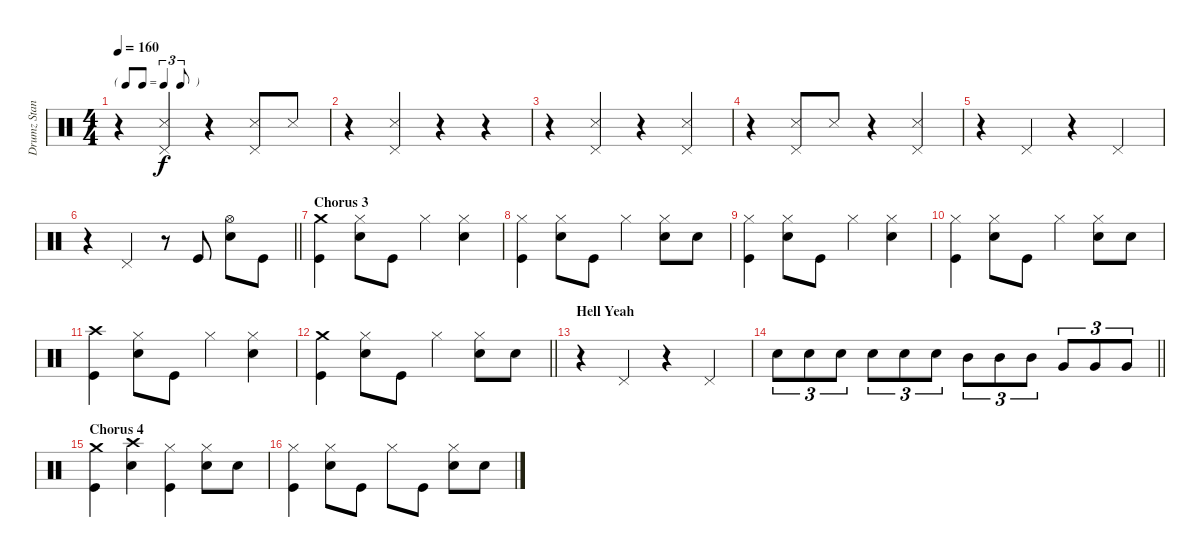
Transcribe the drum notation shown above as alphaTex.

\track ("Drumz Standard" "Drumz Stan") {instrument percussion}
\staff {score}
\articulation defaults
\ts (4 4)
\tf triplet8th
\tempo 160
\clef neutral
\ks c
r.4{dy f} ("Pedal Hi-Hat (hit)" "Snare (side stick) 3").4 r.4 ("Pedal Hi-Hat (hit)" "Snare (side stick) 3").8 "Snare (side stick) 3".8 |
r.4 ("Pedal Hi-Hat (hit)" "Snare (side stick) 3").4 r.4 r.4 |
r.4 ("Pedal Hi-Hat (hit)" "Snare (side stick) 3").4 r.4 ("Pedal Hi-Hat (hit)" "Snare (side stick) 3").4 |
r.4 ("Pedal Hi-Hat (hit)" "Snare (side stick) 3").8 "Snare (side stick) 3".8 r.4 ("Pedal Hi-Hat (hit)" "Snare (side stick) 3").4 |
r.4 "Pedal Hi-Hat (hit)".4 r.4 "Pedal Hi-Hat (hit)".4 |
\barLineRight lightlight
r.4 "Pedal Hi-Hat (hit)".4 r.8 "Kick (hit)".8 ("Hi-Hat (open)" "Electric Snare (hit)").8 "Kick (hit)".8 |
\section ("" "Chorus 3")
("Crash medium (hit)" "Kick (hit)").4 ("Hi-Hat (closed)" "Electric Snare (hit)").8 "Kick (hit)".8 "Hi-Hat (closed)".4 ("Hi-Hat (closed)" "Electric Snare (hit)").4 |
("Hi-Hat (closed)" "Kick (hit)").4 ("Hi-Hat (closed)" "Electric Snare (hit)").8 "Kick (hit)".8 "Hi-Hat (closed)".4 ("Hi-Hat (closed)" "Electric Snare (hit)").8 "Electric Snare (hit)".8 |
("Hi-Hat (closed)" "Kick (hit)").4 ("Hi-Hat (closed)" "Electric Snare (hit)").8 "Kick (hit)".8 "Hi-Hat (closed)".4 ("Hi-Hat (closed)" "Electric Snare (hit)").4 |
("Hi-Hat (closed)" "Kick (hit)").4 ("Hi-Hat (closed)" "Electric Snare (hit)").8 "Kick (hit)".8 "Hi-Hat (closed)".4 ("Hi-Hat (closed)" "Electric Snare (hit)").8 "Electric Snare (hit)".8 |
("Crash high (hit)" "Kick (hit)").4 ("Hi-Hat (closed)" "Electric Snare (hit)").8 "Kick (hit)".8 "Hi-Hat (closed)".4 ("Hi-Hat (closed)" "Electric Snare (hit)").4 |
\barLineRight lightlight
("Crash medium (hit)" "Kick (hit)").4 ("Hi-Hat (closed)" "Electric Snare (hit)").8 "Kick (hit)".8 "Hi-Hat (closed)".4 ("Hi-Hat (closed)" "Electric Snare (hit)").8 "Electric Snare (hit)".8 |
\section ("" "Hell Yeah")
r.4 "Pedal Hi-Hat (hit)".4 r.4 "Pedal Hi-Hat (hit)".4 |
\barLineRight lightlight "Electric Snare (hit)".8{tu (3 2)} "Electric Snare (hit)".8{tu (3 2)} "Electric Snare (hit)".8{tu (3 2)} "Electric Snare (hit)".8{tu (3 2)} "Electric Snare (hit)".8{tu (3 2)} "Electric Snare (hit)".8{tu (3 2)} "Mid Tom (hit)".8{tu (3 2)} "Mid Tom (hit)".8{tu (3 2)} "Mid Tom (hit)".8{tu (3 2)} "Very Low Tom (hit)".8{tu (3 2)} "Very Low Tom (hit)".8{tu (3 2)} "Very Low Tom (hit)".8{tu (3 2)}
|
\section ("" "Chorus 4")
("Crash medium (hit)" "Kick (hit)").4 ("Crash high (hit)" "Electric Snare (hit)").4 ("Hi-Hat (closed)" "Kick (hit)").4 ("Hi-Hat (closed)" "Electric Snare (hit)").8 "Electric Snare (hit)".8 |
("Hi-Hat (closed)" "Kick (hit)").4 ("Hi-Hat (closed)" "Electric Snare (hit)").8 "Kick (hit)".8 "Hi-Hat (closed)".8 "Kick (hit)".8 ("Hi-Hat (closed)" "Electric Snare (hit)").8 "Electric Snare (hit)".8
